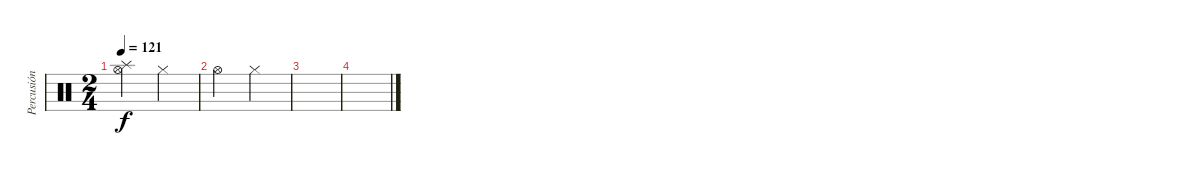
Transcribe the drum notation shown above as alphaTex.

\track ("Percusión" "Percusión") {instrument percussion}
\staff {score}
\articulation defaults
\ts (2 4)
\tempo 121
\clef neutral
\ks c
("Hi-Hat (open)" "Splash (hit)").4{dy f} "Hi-Hat (closed)".4 |
"Hi-Hat (open)".4 "Hi-Hat (closed)".4 |
|
\section ("" "")
